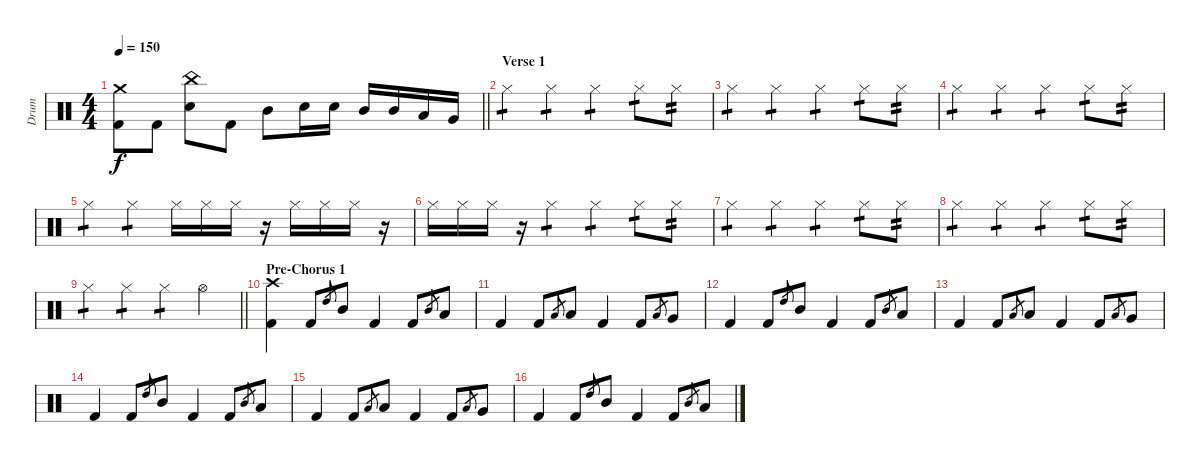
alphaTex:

\track ("Drum" "Drum") {instrument percussion}
\staff {score}
\articulation defaults
\ts (4 4)
\tempo 150
\clef neutral
\barLineRight lightlight
\ks c
("Kick (hit) 2" "Crash medium (hit)").8{dy f} "Kick (hit) 2".8 ("Electric Snare (hit)" "China (hit)").8 "Kick (hit) 2".8 "Mid Tom (hit)".8 "Electric Snare (hit)".16 "Electric Snare (hit)".16 "Mid Tom (hit)".16 "Mid Tom (hit)".16 "Low Tom (hit)".16 "Very Low Tom (hit)".16 |
\section ("" "Verse 1")
"Hi-Hat (closed)".4{tp 1} "Hi-Hat (closed)".4{tp 1} "Hi-Hat (closed)".4{tp 1} "Hi-Hat (closed)".8{tp 1} "Hi-Hat (closed)".8{tp 2} |
"Hi-Hat (closed)".4{tp 1} "Hi-Hat (closed)".4{tp 1} "Hi-Hat (closed)".4{tp 1} "Hi-Hat (closed)".8{tp 1} "Hi-Hat (closed)".8{tp 2} |
"Hi-Hat (closed)".4{tp 1} "Hi-Hat (closed)".4{tp 1} "Hi-Hat (closed)".4{tp 1} "Hi-Hat (closed)".8{tp 1} "Hi-Hat (closed)".8{tp 2} |
"Hi-Hat (closed)".4{tp 1} "Hi-Hat (closed)".4{tp 1} "Hi-Hat (closed)".16 "Hi-Hat (closed)".16 "Hi-Hat (closed)".16 r.16 "Hi-Hat (closed)".16 "Hi-Hat (closed)".16 "Hi-Hat (closed)".16 r.16 |
"Hi-Hat (closed)".16 "Hi-Hat (closed)".16 "Hi-Hat (closed)".16 r.16 "Hi-Hat (closed)".4{tp 1} "Hi-Hat (closed)".4{tp 1} "Hi-Hat (closed)".8{tp 1} "Hi-Hat (closed)".8{tp 2} |
"Hi-Hat (closed)".4{tp 1} "Hi-Hat (closed)".4{tp 1} "Hi-Hat (closed)".4{tp 1} "Hi-Hat (closed)".8{tp 1} "Hi-Hat (closed)".8{tp 2} |
"Hi-Hat (closed)".4{tp 1} "Hi-Hat (closed)".4{tp 1} "Hi-Hat (closed)".4{tp 1} "Hi-Hat (closed)".8{tp 1} "Hi-Hat (closed)".8{tp 2} |
\barLineRight lightlight "Hi-Hat (closed)".4{tp 1} "Hi-Hat (closed)".4{tp 1} "Hi-Hat (closed)".4{tp 1} "Hi-Hat (open)".4
|
\section ("" "Pre-Chorus 1")
("Kick (hit) 2" "Crash high (hit)").4 "Kick (hit) 2".8 "High Tom (hit)".8{gr} "Mid Tom (hit)".8 "Kick (hit) 2".4 "Kick (hit) 2".8 "Mid Tom (hit)".8{gr} "Low Tom (hit)".8 |
"Kick (hit) 2".4 "Kick (hit) 2".8 "Low Tom (hit)".8{gr} "Low Tom (hit)".8 "Kick (hit) 2".4 "Kick (hit) 2".8 "Low Tom (hit)".8{gr} "Very Low Tom (hit)".8 |
"Kick (hit) 2".4 "Kick (hit) 2".8 "High Tom (hit)".8{gr} "Mid Tom (hit)".8 "Kick (hit) 2".4 "Kick (hit) 2".8 "Mid Tom (hit)".8{gr} "Low Tom (hit)".8 |
"Kick (hit) 2".4 "Kick (hit) 2".8 "Low Tom (hit)".8{gr} "Low Tom (hit)".8 "Kick (hit) 2".4 "Kick (hit) 2".8 "Low Tom (hit)".8{gr} "Very Low Tom (hit)".8 |
"Kick (hit) 2".4 "Kick (hit) 2".8 "High Tom (hit)".8{gr} "Mid Tom (hit)".8 "Kick (hit) 2".4 "Kick (hit) 2".8 "Mid Tom (hit)".8{gr} "Low Tom (hit)".8 |
"Kick (hit) 2".4 "Kick (hit) 2".8 "Low Tom (hit)".8{gr} "Low Tom (hit)".8 "Kick (hit) 2".4 "Kick (hit) 2".8 "Low Tom (hit)".8{gr} "Very Low Tom (hit)".8 |
"Kick (hit) 2".4 "Kick (hit) 2".8 "High Tom (hit)".8{gr} "Mid Tom (hit)".8 "Kick (hit) 2".4 "Kick (hit) 2".8 "Mid Tom (hit)".8{gr} "Low Tom (hit)".8
